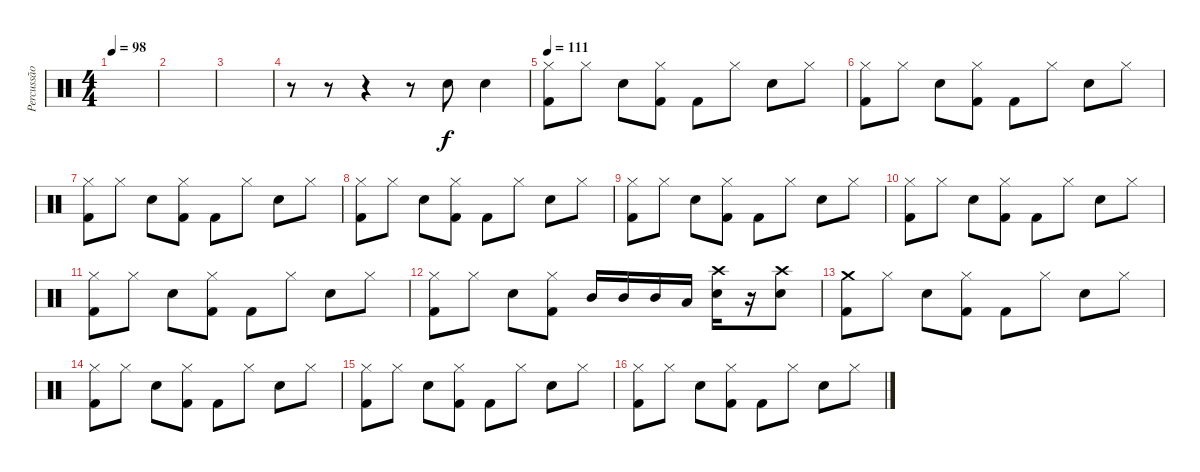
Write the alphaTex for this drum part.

\track ("Percussão" "Percussão") {instrument percussion}
\staff {score}
\articulation defaults
\ts (4 4)
\tempo 98
\clef neutral
\ks c
|
|
|
r.8 r.8 r.4 r.8 "Electric Snare (hit)".8 "Electric Snare (hit)".4 |
\tempo 111
("Hi-Hat (closed)" "Kick (hit) 2").8 "Hi-Hat (closed)".8 "Electric Snare (hit)".8 ("Hi-Hat (closed)" "Kick (hit) 2").8 "Kick (hit) 2".8 "Hi-Hat (closed)".8 "Electric Snare (hit)".8 "Hi-Hat (closed)".8 |
("Hi-Hat (closed)" "Kick (hit) 2").8 "Hi-Hat (closed)".8 "Electric Snare (hit)".8 ("Hi-Hat (closed)" "Kick (hit) 2").8 "Kick (hit) 2".8 "Hi-Hat (closed)".8 "Electric Snare (hit)".8 "Hi-Hat (closed)".8 |
("Hi-Hat (closed)" "Kick (hit) 2").8 "Hi-Hat (closed)".8 "Electric Snare (hit)".8 ("Hi-Hat (closed)" "Kick (hit) 2").8 "Kick (hit) 2".8 "Hi-Hat (closed)".8 "Electric Snare (hit)".8 "Hi-Hat (closed)".8 |
("Hi-Hat (closed)" "Kick (hit) 2").8 "Hi-Hat (closed)".8 "Electric Snare (hit)".8 ("Hi-Hat (closed)" "Kick (hit) 2").8 "Kick (hit) 2".8 "Hi-Hat (closed)".8 "Electric Snare (hit)".8 "Hi-Hat (closed)".8 |
("Hi-Hat (closed)" "Kick (hit) 2").8 "Hi-Hat (closed)".8 "Electric Snare (hit)".8 ("Hi-Hat (closed)" "Kick (hit) 2").8 "Kick (hit) 2".8 "Hi-Hat (closed)".8 "Electric Snare (hit)".8 "Hi-Hat (closed)".8 |
("Hi-Hat (closed)" "Kick (hit) 2").8 "Hi-Hat (closed)".8 "Electric Snare (hit)".8 ("Hi-Hat (closed)" "Kick (hit) 2").8 "Kick (hit) 2".8 "Hi-Hat (closed)".8 "Electric Snare (hit)".8 "Hi-Hat (closed)".8 |
("Hi-Hat (closed)" "Kick (hit) 2").8 "Hi-Hat (closed)".8 "Electric Snare (hit)".8 ("Hi-Hat (closed)" "Kick (hit) 2").8 "Kick (hit) 2".8 "Hi-Hat (closed)".8 "Electric Snare (hit)".8 "Hi-Hat (closed)".8 |
("Hi-Hat (closed)" "Kick (hit) 2").8 "Hi-Hat (closed)".8 "Electric Snare (hit)".8 ("Hi-Hat (closed)" "Kick (hit) 2").8 "Mid Tom (hit)".16 "Mid Tom (hit)".16 "Mid Tom (hit)".16 "Low Tom (hit)".16 ("Crash high (hit)" "Electric Snare (hit)").16 r.16 ("Crash high (hit)" "Electric Snare (hit)").8 |
("Crash medium (hit)" "Kick (hit) 2").8 "Hi-Hat (closed)".8 "Electric Snare (hit)".8 ("Hi-Hat (closed)" "Kick (hit) 2").8 "Kick (hit) 2".8 "Hi-Hat (closed)".8 "Electric Snare (hit)".8 "Hi-Hat (closed)".8 |
("Hi-Hat (closed)" "Kick (hit) 2").8 "Hi-Hat (closed)".8 "Electric Snare (hit)".8 ("Hi-Hat (closed)" "Kick (hit) 2").8 "Kick (hit) 2".8 "Hi-Hat (closed)".8 "Electric Snare (hit)".8 "Hi-Hat (closed)".8 |
("Hi-Hat (closed)" "Kick (hit) 2").8 "Hi-Hat (closed)".8 "Electric Snare (hit)".8 ("Hi-Hat (closed)" "Kick (hit) 2").8 "Kick (hit) 2".8 "Hi-Hat (closed)".8 "Electric Snare (hit)".8 "Hi-Hat (closed)".8 |
("Hi-Hat (closed)" "Kick (hit) 2").8 "Hi-Hat (closed)".8 "Electric Snare (hit)".8 ("Hi-Hat (closed)" "Kick (hit) 2").8 "Kick (hit) 2".8 "Hi-Hat (closed)".8 "Electric Snare (hit)".8 "Hi-Hat (closed)".8
